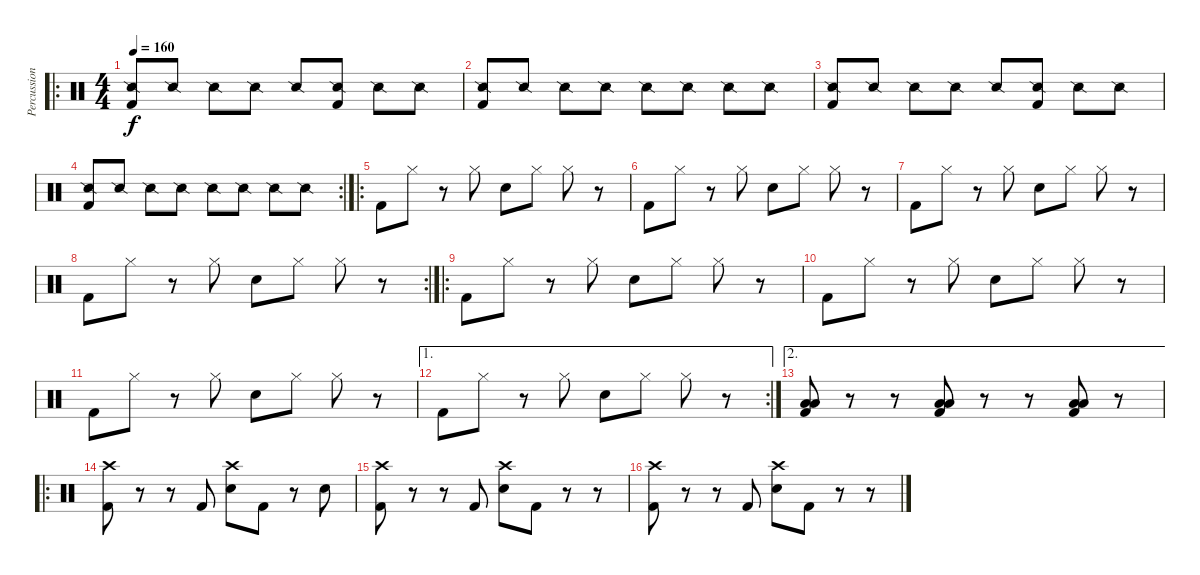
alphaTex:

\track ("Percussion" "Percussion") {instrument percussion}
\staff {score}
\articulation defaults
\ro
\ts (4 4)
\tempo 160
\clef neutral
\ks c
("Snare (side stick) 2" "Kick (hit) 2").8{dy f} "Snare (side stick) 2".8 "Snare (side stick) 2".8 "Snare (side stick) 2".8 "Snare (side stick) 2".8 ("Snare (side stick) 2" "Kick (hit) 2").8 "Snare (side stick) 2".8 "Snare (side stick) 2".8 |
("Snare (side stick) 2" "Kick (hit) 2").8 "Snare (side stick) 2".8 "Snare (side stick) 2".8 "Snare (side stick) 2".8 "Snare (side stick) 2".8 "Snare (side stick) 2".8 "Snare (side stick) 2".8 "Snare (side stick) 2".8 |
("Snare (side stick) 2" "Kick (hit) 2").8 "Snare (side stick) 2".8 "Snare (side stick) 2".8 "Snare (side stick) 2".8 "Snare (side stick) 2".8 ("Snare (side stick) 2" "Kick (hit) 2").8 "Snare (side stick) 2".8 "Snare (side stick) 2".8 |
\rc 2
("Snare (side stick) 2" "Kick (hit) 2").8 "Snare (side stick) 2".8 "Snare (side stick) 2".8 "Snare (side stick) 2".8 "Snare (side stick) 2".8 "Snare (side stick) 2".8 "Snare (side stick) 2".8 "Snare (side stick) 2".8 |
\ro "Kick (hit) 2".8 "Hi-Hat (closed)".8
r.8 "Hi-Hat (closed)".8 "Snare (hit) 2".8 "Hi-Hat (closed)".8 "Hi-Hat (closed)".8 r.8 |
"Kick (hit) 2".8 "Hi-Hat (closed)".8 r.8 "Hi-Hat (closed)".8 "Snare (hit) 2".8 "Hi-Hat (closed)".8 "Hi-Hat (closed)".8 r.8 |
"Kick (hit) 2".8 "Hi-Hat (closed)".8 r.8 "Hi-Hat (closed)".8 "Snare (hit) 2".8 "Hi-Hat (closed)".8 "Hi-Hat (closed)".8 r.8 |
\rc 2 "Kick (hit) 2".8 "Hi-Hat (closed)".8
r.8 "Hi-Hat (closed)".8 "Snare (hit) 2".8 "Hi-Hat (closed)".8 "Hi-Hat (closed)".8 r.8 |
\ro "Kick (hit) 2".8 "Hi-Hat (closed)".8
r.8 "Hi-Hat (closed)".8 "Snare (hit) 2".8 "Hi-Hat (closed)".8 "Hi-Hat (closed)".8 r.8 |
"Kick (hit) 2".8 "Hi-Hat (closed)".8 r.8 "Hi-Hat (closed)".8 "Snare (hit) 2".8 "Hi-Hat (closed)".8 "Hi-Hat (closed)".8 r.8 |
"Kick (hit) 2".8 "Hi-Hat (closed)".8 r.8 "Hi-Hat (closed)".8 "Snare (hit) 2".8 "Hi-Hat (closed)".8 "Hi-Hat (closed)".8 r.8 |
\ae 1
\rc 2 "Kick (hit) 2".8 "Hi-Hat (closed)".8
r.8 "Hi-Hat (closed)".8 "Snare (hit) 2".8 "Hi-Hat (closed)".8 "Hi-Hat (closed)".8 r.8 |
\ae 2
("Low Tom (hit)" "Low Floor Tom (hit)" "Kick (hit) 2").8 r.8 r.8 ("Low Tom (hit)" "Low Floor Tom (hit)" "Kick (hit) 2").8 r.8 r.8 ("Low Tom (hit)" "Low Floor Tom (hit)" "Kick (hit) 2").8 r.8 |
\ro
("Crash high (hit)" "Kick (hit) 2").8 r.8 r.8 "Kick (hit) 2".8 ("Crash high (hit)" "Snare (hit) 2").8 "Kick (hit) 2".8 r.8 "Snare (hit) 2".8 |
("Crash high (hit)" "Kick (hit) 2").8 r.8 r.8 "Kick (hit) 2".8 ("Crash high (hit)" "Snare (hit) 2").8 "Kick (hit) 2".8 r.8 r.8 |
("Crash high (hit)" "Kick (hit) 2").8 r.8 r.8 "Kick (hit) 2".8 ("Crash high (hit)" "Snare (hit) 2").8 "Kick (hit) 2".8 r.8 r.8
